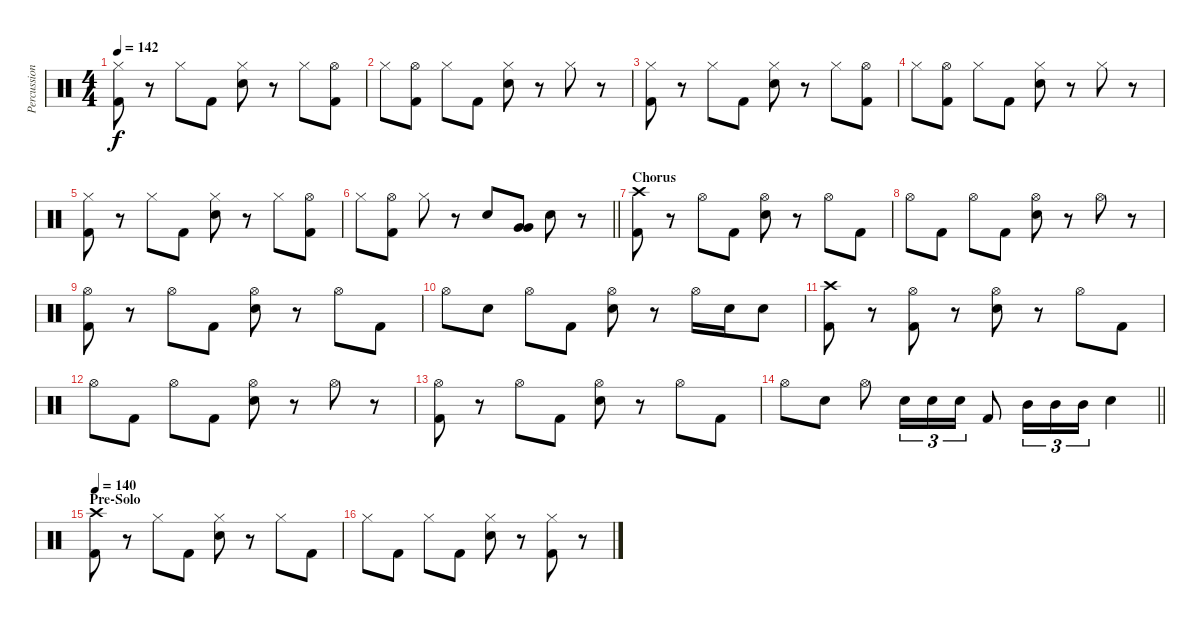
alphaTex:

\track ("Percussion" "Percussion") {instrument percussion}
\staff {score}
\articulation defaults
\ts (4 4)
\tempo 142
\clef neutral
\ks c
("Hi-Hat (closed)" "Kick (hit) 2").8{dy f} r.8 "Hi-Hat (closed)".8 "Kick (hit) 2".8 ("Hi-Hat (closed)" "Snare (hit) 2").8 r.8 "Hi-Hat (closed)".8 ("Hi-Hat (open)" "Kick (hit) 2").8 |
"Hi-Hat (closed)".8 ("Hi-Hat (open)" "Kick (hit) 2").8 "Hi-Hat (closed)".8 "Kick (hit) 2".8 ("Hi-Hat (closed)" "Snare (hit) 2").8 r.8 "Hi-Hat (closed)".8 r.8 |
("Hi-Hat (closed)" "Kick (hit) 2").8 r.8 "Hi-Hat (closed)".8 "Kick (hit) 2".8 ("Hi-Hat (closed)" "Snare (hit) 2").8 r.8 "Hi-Hat (closed)".8 ("Hi-Hat (open)" "Kick (hit) 2").8 |
"Hi-Hat (closed)".8 ("Hi-Hat (open)" "Kick (hit) 2").8 "Hi-Hat (closed)".8 "Kick (hit) 2".8 ("Hi-Hat (closed)" "Snare (hit) 2").8 r.8 "Hi-Hat (closed)".8 r.8 |
("Hi-Hat (closed)" "Kick (hit) 2").8 r.8 "Hi-Hat (closed)".8 "Kick (hit) 2".8 ("Hi-Hat (closed)" "Snare (hit) 2").8 r.8 "Hi-Hat (closed)".8 ("Hi-Hat (open)" "Kick (hit) 2").8 |
\barLineRight lightlight "Hi-Hat (closed)".8
("Hi-Hat (open)" "Kick (hit) 2").8 "Hi-Hat (closed)".8 r.8 "Snare (hit) 2".8 ("Very Low Tom (hit)" "Very Low Tom (hit)").8 "Snare (hit) 2".8 r.8 |
\section ("" "Chorus")
("Crash high (hit)" "Kick (hit) 2").8 r.8 "Hi-Hat (open)".8 "Kick (hit) 2".8 ("Hi-Hat (open)" "Snare (hit) 2").8 r.8 "Hi-Hat (open)".8 "Kick (hit) 2".8 |
"Hi-Hat (open)".8 "Kick (hit) 2".8 "Hi-Hat (open)".8 "Kick (hit) 2".8 ("Hi-Hat (open)" "Snare (hit) 2").8 r.8 "Hi-Hat (open)".8 r.8 |
("Hi-Hat (open)" "Kick (hit) 2").8 r.8 "Hi-Hat (open)".8 "Kick (hit) 2".8 ("Hi-Hat (open)" "Snare (hit) 2").8 r.8 "Hi-Hat (open)".8 "Kick (hit) 2".8 |
"Hi-Hat (open)".8 "Snare (hit) 2".8 "Hi-Hat (open)".8 "Kick (hit) 2".8 ("Hi-Hat (open)" "Snare (hit) 2").8 r.8 "Hi-Hat (open)".16 "Snare (hit) 2".16 "Snare (hit) 2".8 |
("Crash high (hit)" "Kick (hit) 2").8 r.8 ("Hi-Hat (open)" "Kick (hit) 2").8 r.8 ("Hi-Hat (open)" "Snare (hit) 2").8 r.8 "Hi-Hat (open)".8 "Kick (hit) 2".8 |
"Hi-Hat (open)".8 "Kick (hit) 2".8 "Hi-Hat (open)".8 "Kick (hit) 2".8 ("Hi-Hat (open)" "Snare (hit) 2").8 r.8 "Hi-Hat (open)".8 r.8 |
("Hi-Hat (open)" "Kick (hit) 2").8 r.8 "Hi-Hat (open)".8 "Kick (hit) 2".8 ("Hi-Hat (open)" "Snare (hit) 2").8 r.8 "Hi-Hat (open)".8 "Kick (hit) 2".8 |
\barLineRight lightlight "Hi-Hat (open)".8 "Snare (hit) 2".8 "Hi-Hat (open)".8 "Snare (hit) 2".16{tu (3 2)} "Snare (hit) 2".16{tu (3 2)} "Snare (hit) 2".16{tu (3 2)} "Kick (hit) 2".8 "Mid Tom (hit)".16{tu (3 2)} "Mid Tom (hit)".16{tu (3 2)} "Mid Tom (hit)".16{tu (3 2)} "Snare (hit) 2".4
|
\section ("" "Pre-Solo")
\tempo 140
("Crash high (hit)" "Kick (hit) 2").8 r.8 "Hi-Hat (closed)".8 "Kick (hit) 2".8 ("Hi-Hat (closed)" "Snare (hit) 2").8 r.8 "Hi-Hat (closed)".8 "Kick (hit) 2".8 |
"Hi-Hat (closed)".8 "Kick (hit) 2".8 "Hi-Hat (closed)".8 "Kick (hit) 2".8 ("Hi-Hat (closed)" "Snare (hit) 2").8 r.8 ("Hi-Hat (closed)" "Kick (hit) 2").8 r.8
